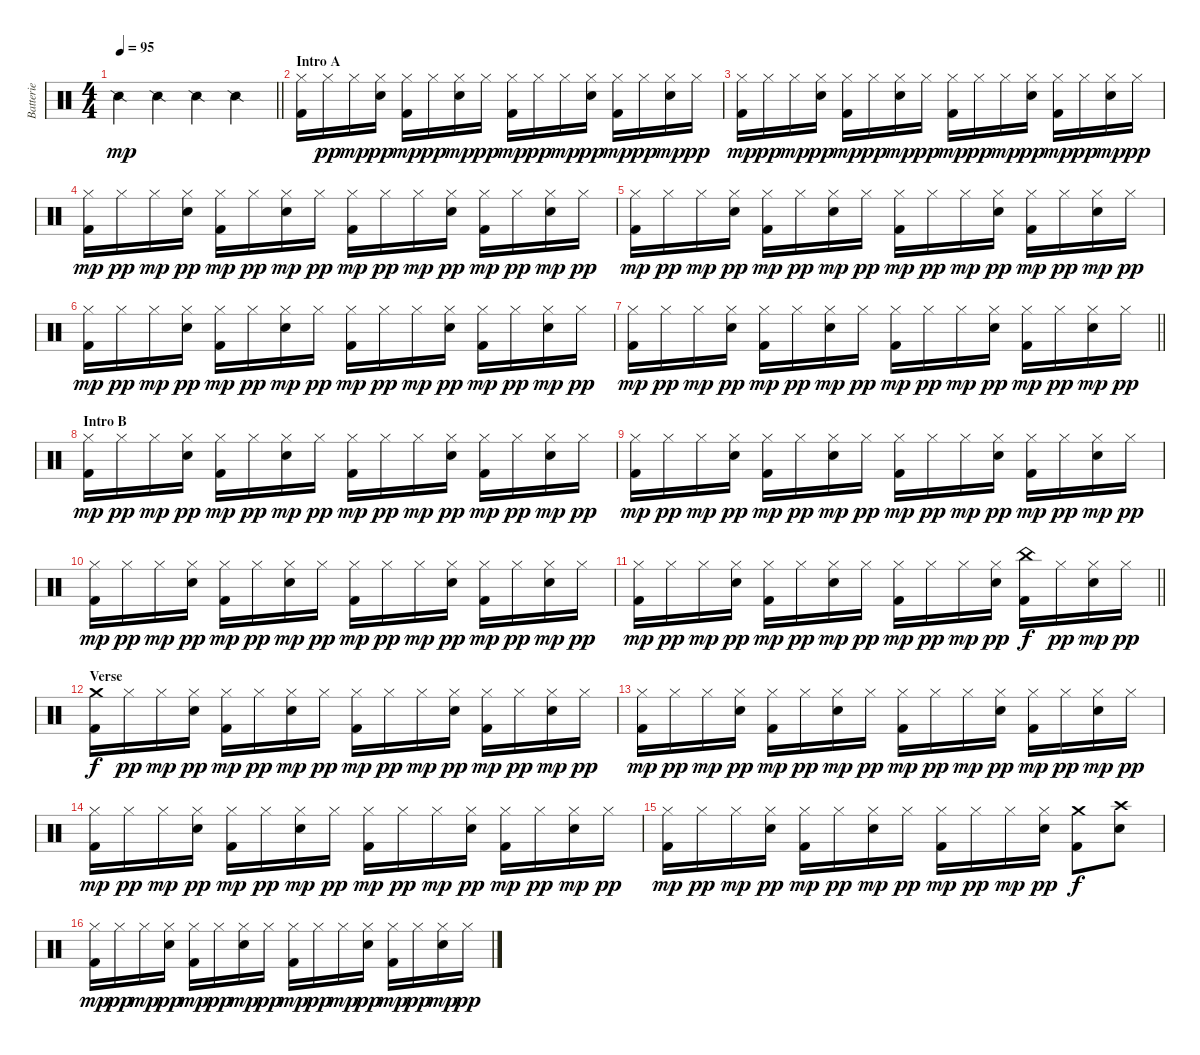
\track ("Batterie" "Batterie") {instrument percussion}
\staff {score}
\articulation defaults
\ts (4 4)
\tempo 95
\clef neutral
\barLineRight lightlight
\ks c "Snare (side stick) 2".4{dy mp} "Snare (side stick) 2".4 "Snare (side stick) 2".4 "Snare (side stick) 2".4
|
\section ("" "Intro A")
("Hi-Hat (closed)" "Kick (hit) 2").16 "Hi-Hat (closed)".16{dy pp} "Hi-Hat (closed)".16{dy mp} ("Hi-Hat (closed)" "Electric Snare (hit)").16{dy pp} ("Hi-Hat (closed)" "Kick (hit) 2").16{dy mp} "Hi-Hat (closed)".16{dy pp} ("Hi-Hat (closed)" "Electric Snare (hit)").16{dy mp} "Hi-Hat (closed)".16{dy pp} ("Hi-Hat (closed)" "Kick (hit) 2").16{dy mp} "Hi-Hat (closed)".16{dy pp} "Hi-Hat (closed)".16{dy mp} ("Hi-Hat (closed)" "Electric Snare (hit)").16{dy pp} ("Hi-Hat (closed)" "Kick (hit) 2").16{dy mp} "Hi-Hat (closed)".16{dy pp} ("Hi-Hat (closed)" "Electric Snare (hit)").16{dy mp} "Hi-Hat (closed)".16{dy pp} |
("Hi-Hat (closed)" "Kick (hit) 2").16{dy mp} "Hi-Hat (closed)".16{dy pp} "Hi-Hat (closed)".16{dy mp} ("Hi-Hat (closed)" "Electric Snare (hit)").16{dy pp} ("Hi-Hat (closed)" "Kick (hit) 2").16{dy mp} "Hi-Hat (closed)".16{dy pp} ("Hi-Hat (closed)" "Electric Snare (hit)").16{dy mp} "Hi-Hat (closed)".16{dy pp} ("Hi-Hat (closed)" "Kick (hit) 2").16{dy mp} "Hi-Hat (closed)".16{dy pp} "Hi-Hat (closed)".16{dy mp} ("Hi-Hat (closed)" "Electric Snare (hit)").16{dy pp} ("Hi-Hat (closed)" "Kick (hit) 2").16{dy mp} "Hi-Hat (closed)".16{dy pp} ("Hi-Hat (closed)" "Electric Snare (hit)").16{dy mp} "Hi-Hat (closed)".16{dy pp} |
("Hi-Hat (closed)" "Kick (hit) 2").16{dy mp} "Hi-Hat (closed)".16{dy pp} "Hi-Hat (closed)".16{dy mp} ("Hi-Hat (closed)" "Electric Snare (hit)").16{dy pp} ("Hi-Hat (closed)" "Kick (hit) 2").16{dy mp} "Hi-Hat (closed)".16{dy pp} ("Hi-Hat (closed)" "Electric Snare (hit)").16{dy mp} "Hi-Hat (closed)".16{dy pp} ("Hi-Hat (closed)" "Kick (hit) 2").16{dy mp} "Hi-Hat (closed)".16{dy pp} "Hi-Hat (closed)".16{dy mp} ("Hi-Hat (closed)" "Electric Snare (hit)").16{dy pp} ("Hi-Hat (closed)" "Kick (hit) 2").16{dy mp} "Hi-Hat (closed)".16{dy pp} ("Hi-Hat (closed)" "Electric Snare (hit)").16{dy mp} "Hi-Hat (closed)".16{dy pp} |
("Hi-Hat (closed)" "Kick (hit) 2").16{dy mp} "Hi-Hat (closed)".16{dy pp} "Hi-Hat (closed)".16{dy mp} ("Hi-Hat (closed)" "Electric Snare (hit)").16{dy pp} ("Hi-Hat (closed)" "Kick (hit) 2").16{dy mp} "Hi-Hat (closed)".16{dy pp} ("Hi-Hat (closed)" "Electric Snare (hit)").16{dy mp} "Hi-Hat (closed)".16{dy pp} ("Hi-Hat (closed)" "Kick (hit) 2").16{dy mp} "Hi-Hat (closed)".16{dy pp} "Hi-Hat (closed)".16{dy mp} ("Hi-Hat (closed)" "Electric Snare (hit)").16{dy pp} ("Hi-Hat (closed)" "Kick (hit) 2").16{dy mp} "Hi-Hat (closed)".16{dy pp} ("Hi-Hat (closed)" "Electric Snare (hit)").16{dy mp} "Hi-Hat (closed)".16{dy pp} |
("Hi-Hat (closed)" "Kick (hit) 2").16{dy mp} "Hi-Hat (closed)".16{dy pp} "Hi-Hat (closed)".16{dy mp} ("Hi-Hat (closed)" "Electric Snare (hit)").16{dy pp} ("Hi-Hat (closed)" "Kick (hit) 2").16{dy mp} "Hi-Hat (closed)".16{dy pp} ("Hi-Hat (closed)" "Electric Snare (hit)").16{dy mp} "Hi-Hat (closed)".16{dy pp} ("Hi-Hat (closed)" "Kick (hit) 2").16{dy mp} "Hi-Hat (closed)".16{dy pp} "Hi-Hat (closed)".16{dy mp} ("Hi-Hat (closed)" "Electric Snare (hit)").16{dy pp} ("Hi-Hat (closed)" "Kick (hit) 2").16{dy mp} "Hi-Hat (closed)".16{dy pp} ("Hi-Hat (closed)" "Electric Snare (hit)").16{dy mp} "Hi-Hat (closed)".16{dy pp} |
\barLineRight lightlight
("Hi-Hat (closed)" "Kick (hit) 2").16{dy mp} "Hi-Hat (closed)".16{dy pp} "Hi-Hat (closed)".16{dy mp} ("Hi-Hat (closed)" "Electric Snare (hit)").16{dy pp} ("Hi-Hat (closed)" "Kick (hit) 2").16{dy mp} "Hi-Hat (closed)".16{dy pp} ("Hi-Hat (closed)" "Electric Snare (hit)").16{dy mp} "Hi-Hat (closed)".16{dy pp} ("Hi-Hat (closed)" "Kick (hit) 2").16{dy mp} "Hi-Hat (closed)".16{dy pp} "Hi-Hat (closed)".16{dy mp} ("Hi-Hat (closed)" "Electric Snare (hit)").16{dy pp} ("Hi-Hat (closed)" "Kick (hit) 2").16{dy mp} "Hi-Hat (closed)".16{dy pp} ("Hi-Hat (closed)" "Electric Snare (hit)").16{dy mp} "Hi-Hat (closed)".16{dy pp} |
\section ("" "Intro B")
("Hi-Hat (closed)" "Kick (hit) 2").16{dy mp} "Hi-Hat (closed)".16{dy pp} "Hi-Hat (closed)".16{dy mp} ("Hi-Hat (closed)" "Electric Snare (hit)").16{dy pp} ("Hi-Hat (closed)" "Kick (hit) 2").16{dy mp} "Hi-Hat (closed)".16{dy pp} ("Hi-Hat (closed)" "Electric Snare (hit)").16{dy mp} "Hi-Hat (closed)".16{dy pp} ("Hi-Hat (closed)" "Kick (hit) 2").16{dy mp} "Hi-Hat (closed)".16{dy pp} "Hi-Hat (closed)".16{dy mp} ("Hi-Hat (closed)" "Electric Snare (hit)").16{dy pp} ("Hi-Hat (closed)" "Kick (hit) 2").16{dy mp} "Hi-Hat (closed)".16{dy pp} ("Hi-Hat (closed)" "Electric Snare (hit)").16{dy mp} "Hi-Hat (closed)".16{dy pp} |
("Hi-Hat (closed)" "Kick (hit) 2").16{dy mp} "Hi-Hat (closed)".16{dy pp} "Hi-Hat (closed)".16{dy mp} ("Hi-Hat (closed)" "Electric Snare (hit)").16{dy pp} ("Hi-Hat (closed)" "Kick (hit) 2").16{dy mp} "Hi-Hat (closed)".16{dy pp} ("Hi-Hat (closed)" "Electric Snare (hit)").16{dy mp} "Hi-Hat (closed)".16{dy pp} ("Hi-Hat (closed)" "Kick (hit) 2").16{dy mp} "Hi-Hat (closed)".16{dy pp} "Hi-Hat (closed)".16{dy mp} ("Hi-Hat (closed)" "Electric Snare (hit)").16{dy pp} ("Hi-Hat (closed)" "Kick (hit) 2").16{dy mp} "Hi-Hat (closed)".16{dy pp} ("Hi-Hat (closed)" "Electric Snare (hit)").16{dy mp} "Hi-Hat (closed)".16{dy pp} |
("Hi-Hat (closed)" "Kick (hit) 2").16{dy mp} "Hi-Hat (closed)".16{dy pp} "Hi-Hat (closed)".16{dy mp} ("Hi-Hat (closed)" "Electric Snare (hit)").16{dy pp} ("Hi-Hat (closed)" "Kick (hit) 2").16{dy mp} "Hi-Hat (closed)".16{dy pp} ("Hi-Hat (closed)" "Electric Snare (hit)").16{dy mp} "Hi-Hat (closed)".16{dy pp} ("Hi-Hat (closed)" "Kick (hit) 2").16{dy mp} "Hi-Hat (closed)".16{dy pp} "Hi-Hat (closed)".16{dy mp} ("Hi-Hat (closed)" "Electric Snare (hit)").16{dy pp} ("Hi-Hat (closed)" "Kick (hit) 2").16{dy mp} "Hi-Hat (closed)".16{dy pp} ("Hi-Hat (closed)" "Electric Snare (hit)").16{dy mp} "Hi-Hat (closed)".16{dy pp} |
\barLineRight lightlight
("Hi-Hat (closed)" "Kick (hit) 2").16{dy mp} "Hi-Hat (closed)".16{dy pp} "Hi-Hat (closed)".16{dy mp} ("Hi-Hat (closed)" "Electric Snare (hit)").16{dy pp} ("Hi-Hat (closed)" "Kick (hit) 2").16{dy mp} "Hi-Hat (closed)".16{dy pp} ("Hi-Hat (closed)" "Electric Snare (hit)").16{dy mp} "Hi-Hat (closed)".16{dy pp} ("Hi-Hat (closed)" "Kick (hit) 2").16{dy mp} "Hi-Hat (closed)".16{dy pp} "Hi-Hat (closed)".16{dy mp} ("Hi-Hat (closed)" "Electric Snare (hit)").16{dy pp} ("China (hit)" "Kick (hit) 2").16{dy f} "Hi-Hat (closed)".16{dy pp} ("Hi-Hat (closed)" "Electric Snare (hit)").16{dy mp} "Hi-Hat (closed)".16{dy pp} |
\section ("" "Verse")
("Crash medium (hit)" "Kick (hit) 2").16{dy f} "Hi-Hat (closed)".16{dy pp} "Hi-Hat (closed)".16{dy mp} ("Hi-Hat (closed)" "Electric Snare (hit)").16{dy pp} ("Hi-Hat (closed)" "Kick (hit) 2").16{dy mp} "Hi-Hat (closed)".16{dy pp} ("Hi-Hat (closed)" "Electric Snare (hit)").16{dy mp} "Hi-Hat (closed)".16{dy pp} ("Hi-Hat (closed)" "Kick (hit) 2").16{dy mp} "Hi-Hat (closed)".16{dy pp} "Hi-Hat (closed)".16{dy mp} ("Hi-Hat (closed)" "Electric Snare (hit)").16{dy pp} ("Hi-Hat (closed)" "Kick (hit) 2").16{dy mp} "Hi-Hat (closed)".16{dy pp} ("Hi-Hat (closed)" "Electric Snare (hit)").16{dy mp} "Hi-Hat (closed)".16{dy pp} |
("Hi-Hat (closed)" "Kick (hit) 2").16{dy mp} "Hi-Hat (closed)".16{dy pp} "Hi-Hat (closed)".16{dy mp} ("Hi-Hat (closed)" "Electric Snare (hit)").16{dy pp} ("Hi-Hat (closed)" "Kick (hit) 2").16{dy mp} "Hi-Hat (closed)".16{dy pp} ("Hi-Hat (closed)" "Electric Snare (hit)").16{dy mp} "Hi-Hat (closed)".16{dy pp} ("Hi-Hat (closed)" "Kick (hit) 2").16{dy mp} "Hi-Hat (closed)".16{dy pp} "Hi-Hat (closed)".16{dy mp} ("Hi-Hat (closed)" "Electric Snare (hit)").16{dy pp} ("Hi-Hat (closed)" "Kick (hit) 2").16{dy mp} "Hi-Hat (closed)".16{dy pp} ("Hi-Hat (closed)" "Electric Snare (hit)").16{dy mp} "Hi-Hat (closed)".16{dy pp} |
("Hi-Hat (closed)" "Kick (hit) 2").16{dy mp} "Hi-Hat (closed)".16{dy pp} "Hi-Hat (closed)".16{dy mp} ("Hi-Hat (closed)" "Electric Snare (hit)").16{dy pp} ("Hi-Hat (closed)" "Kick (hit) 2").16{dy mp} "Hi-Hat (closed)".16{dy pp} ("Hi-Hat (closed)" "Electric Snare (hit)").16{dy mp} "Hi-Hat (closed)".16{dy pp} ("Hi-Hat (closed)" "Kick (hit) 2").16{dy mp} "Hi-Hat (closed)".16{dy pp} "Hi-Hat (closed)".16{dy mp} ("Hi-Hat (closed)" "Electric Snare (hit)").16{dy pp} ("Hi-Hat (closed)" "Kick (hit) 2").16{dy mp} "Hi-Hat (closed)".16{dy pp} ("Hi-Hat (closed)" "Electric Snare (hit)").16{dy mp} "Hi-Hat (closed)".16{dy pp} |
("Hi-Hat (closed)" "Kick (hit) 2").16{dy mp} "Hi-Hat (closed)".16{dy pp} "Hi-Hat (closed)".16{dy mp} ("Hi-Hat (closed)" "Electric Snare (hit)").16{dy pp} ("Hi-Hat (closed)" "Kick (hit) 2").16{dy mp} "Hi-Hat (closed)".16{dy pp} ("Hi-Hat (closed)" "Electric Snare (hit)").16{dy mp} "Hi-Hat (closed)".16{dy pp} ("Hi-Hat (closed)" "Kick (hit) 2").16{dy mp} "Hi-Hat (closed)".16{dy pp} "Hi-Hat (closed)".16{dy mp} ("Hi-Hat (closed)" "Electric Snare (hit)").16{dy pp} ("Crash medium (hit)" "Kick (hit) 2").8{dy f} ("Crash high (hit)" "Electric Snare (hit)").8 |
("Hi-Hat (closed)" "Kick (hit) 2").16{dy mp} "Hi-Hat (closed)".16{dy pp} "Hi-Hat (closed)".16{dy mp} ("Hi-Hat (closed)" "Electric Snare (hit)").16{dy pp} ("Hi-Hat (closed)" "Kick (hit) 2").16{dy mp} "Hi-Hat (closed)".16{dy pp} ("Hi-Hat (closed)" "Electric Snare (hit)").16{dy mp} "Hi-Hat (closed)".16{dy pp} ("Hi-Hat (closed)" "Kick (hit) 2").16{dy mp} "Hi-Hat (closed)".16{dy pp} "Hi-Hat (closed)".16{dy mp} ("Hi-Hat (closed)" "Electric Snare (hit)").16{dy pp} ("Hi-Hat (closed)" "Kick (hit) 2").16{dy mp} "Hi-Hat (closed)".16{dy pp} ("Hi-Hat (closed)" "Electric Snare (hit)").16{dy mp} "Hi-Hat (closed)".16{dy pp}
